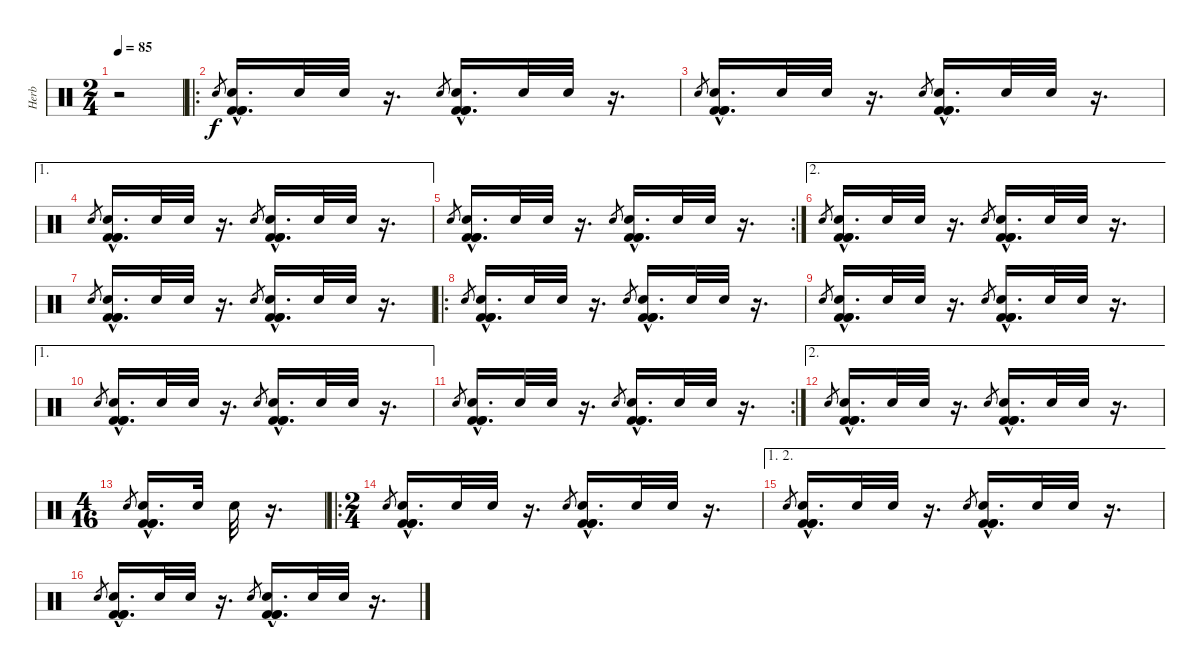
\track ("Herb" "Herb") {instrument percussion}
\staff {score}
\articulation defaults
\ts (2 4)
\tempo 85
\clef neutral
\ks c
r.2{dy f} |
\ro "Snare (hit) 2".8{gr}
("Snare (hit) 2"{hac} "Kick (hit) 2"{hac} "Kick (hit) 2"{hac} "Kick (hit) 2"{hac}).16{d} "Snare (hit) 2".32 "Snare (hit) 2".32 r.16{d} "Snare (hit) 2".8{gr} ("Snare (hit) 2"{hac} "Kick (hit) 2"{hac} "Kick (hit) 2"{hac} "Kick (hit) 2"{hac}).16{d} "Snare (hit) 2".32 "Snare (hit) 2".32 r.16{d} |
"Snare (hit) 2".8{gr} ("Snare (hit) 2"{hac} "Kick (hit) 2"{hac} "Kick (hit) 2"{hac} "Kick (hit) 2"{hac}).16{d} "Snare (hit) 2".32 "Snare (hit) 2".32 r.16{d} "Snare (hit) 2".8{gr} ("Snare (hit) 2"{hac} "Kick (hit) 2"{hac} "Kick (hit) 2"{hac} "Kick (hit) 2"{hac}).16{d} "Snare (hit) 2".32 "Snare (hit) 2".32 r.16{d} |
\ae 1 "Snare (hit) 2".8{gr}
("Snare (hit) 2"{hac} "Kick (hit) 2"{hac} "Kick (hit) 2"{hac} "Kick (hit) 2"{hac}).16{d} "Snare (hit) 2".32 "Snare (hit) 2".32 r.16{d} "Snare (hit) 2".8{gr} ("Snare (hit) 2"{hac} "Kick (hit) 2"{hac} "Kick (hit) 2"{hac} "Kick (hit) 2"{hac}).16{d} "Snare (hit) 2".32 "Snare (hit) 2".32 r.16{d} |
\rc 2 "Snare (hit) 2".8{gr}
("Snare (hit) 2"{hac} "Kick (hit) 2"{hac} "Kick (hit) 2"{hac} "Kick (hit) 2"{hac}).16{d} "Snare (hit) 2".32 "Snare (hit) 2".32 r.16{d} "Snare (hit) 2".8{gr} ("Snare (hit) 2"{hac} "Kick (hit) 2"{hac} "Kick (hit) 2"{hac} "Kick (hit) 2"{hac}).16{d} "Snare (hit) 2".32 "Snare (hit) 2".32 r.16{d} |
\ae 2 "Snare (hit) 2".8{gr}
("Snare (hit) 2"{hac} "Kick (hit) 2"{hac} "Kick (hit) 2"{hac} "Kick (hit) 2"{hac}).16{d} "Snare (hit) 2".32 "Snare (hit) 2".32 r.16{d} "Snare (hit) 2".8{gr} ("Snare (hit) 2"{hac} "Kick (hit) 2"{hac} "Kick (hit) 2"{hac} "Kick (hit) 2"{hac}).16{d} "Snare (hit) 2".32 "Snare (hit) 2".32 r.16{d} |
"Snare (hit) 2".8{gr} ("Snare (hit) 2"{hac} "Kick (hit) 2"{hac} "Kick (hit) 2"{hac} "Kick (hit) 2"{hac}).16{d} "Snare (hit) 2".32 "Snare (hit) 2".32 r.16{d} "Snare (hit) 2".8{gr} ("Snare (hit) 2"{hac} "Kick (hit) 2"{hac} "Kick (hit) 2"{hac} "Kick (hit) 2"{hac}).16{d} "Snare (hit) 2".32 "Snare (hit) 2".32 r.16{d} |
\ro "Snare (hit) 2".8{gr}
("Snare (hit) 2"{hac} "Kick (hit) 2"{hac} "Kick (hit) 2"{hac} "Kick (hit) 2"{hac}).16{d} "Snare (hit) 2".32 "Snare (hit) 2".32 r.16{d} "Snare (hit) 2".8{gr} ("Snare (hit) 2"{hac} "Kick (hit) 2"{hac} "Kick (hit) 2"{hac} "Kick (hit) 2"{hac}).16{d} "Snare (hit) 2".32 "Snare (hit) 2".32 r.16{d} |
"Snare (hit) 2".8{gr} ("Snare (hit) 2"{hac} "Kick (hit) 2"{hac} "Kick (hit) 2"{hac} "Kick (hit) 2"{hac}).16{d} "Snare (hit) 2".32 "Snare (hit) 2".32 r.16{d} "Snare (hit) 2".8{gr} ("Snare (hit) 2"{hac} "Kick (hit) 2"{hac} "Kick (hit) 2"{hac} "Kick (hit) 2"{hac}).16{d} "Snare (hit) 2".32 "Snare (hit) 2".32 r.16{d} |
\ae 1 "Snare (hit) 2".8{gr}
("Snare (hit) 2"{hac} "Kick (hit) 2"{hac} "Kick (hit) 2"{hac} "Kick (hit) 2"{hac}).16{d} "Snare (hit) 2".32 "Snare (hit) 2".32 r.16{d} "Snare (hit) 2".8{gr} ("Snare (hit) 2"{hac} "Kick (hit) 2"{hac} "Kick (hit) 2"{hac} "Kick (hit) 2"{hac}).16{d} "Snare (hit) 2".32 "Snare (hit) 2".32 r.16{d} |
\rc 2 "Snare (hit) 2".8{gr}
("Snare (hit) 2"{hac} "Kick (hit) 2"{hac} "Kick (hit) 2"{hac} "Kick (hit) 2"{hac}).16{d} "Snare (hit) 2".32 "Snare (hit) 2".32 r.16{d} "Snare (hit) 2".8{gr} ("Snare (hit) 2"{hac} "Kick (hit) 2"{hac} "Kick (hit) 2"{hac} "Kick (hit) 2"{hac}).16{d} "Snare (hit) 2".32 "Snare (hit) 2".32 r.16{d} |
\ae 2 "Snare (hit) 2".8{gr}
("Snare (hit) 2"{hac} "Kick (hit) 2"{hac} "Kick (hit) 2"{hac} "Kick (hit) 2"{hac}).16{d} "Snare (hit) 2".32 "Snare (hit) 2".32 r.16{d} "Snare (hit) 2".8{gr} ("Snare (hit) 2"{hac} "Kick (hit) 2"{hac} "Kick (hit) 2"{hac} "Kick (hit) 2"{hac}).16{d} "Snare (hit) 2".32 "Snare (hit) 2".32 r.16{d} |
\ts (4 16)
"Snare (hit) 2".8{gr} ("Snare (hit) 2"{hac} "Kick (hit) 2"{hac} "Kick (hit) 2"{hac} "Kick (hit) 2"{hac}).16{d} "Snare (hit) 2".32 "Snare (hit) 2".32 r.16{d} |
\ro
\ts (2 4)
"Snare (hit) 2".8{gr} ("Snare (hit) 2"{hac} "Kick (hit) 2"{hac} "Kick (hit) 2"{hac} "Kick (hit) 2"{hac}).16{d} "Snare (hit) 2".32 "Snare (hit) 2".32 r.16{d} "Snare (hit) 2".8{gr} ("Snare (hit) 2"{hac} "Kick (hit) 2"{hac} "Kick (hit) 2"{hac} "Kick (hit) 2"{hac}).16{d} "Snare (hit) 2".32 "Snare (hit) 2".32 r.16{d} |
\ae (1 2)
"Snare (hit) 2".8{gr} ("Snare (hit) 2"{hac} "Kick (hit) 2"{hac} "Kick (hit) 2"{hac} "Kick (hit) 2"{hac}).16{d} "Snare (hit) 2".32 "Snare (hit) 2".32 r.16{d} "Snare (hit) 2".8{gr} ("Snare (hit) 2"{hac} "Kick (hit) 2"{hac} "Kick (hit) 2"{hac} "Kick (hit) 2"{hac}).16{d} "Snare (hit) 2".32 "Snare (hit) 2".32 r.16{d} |
"Snare (hit) 2".8{gr} ("Snare (hit) 2"{hac} "Kick (hit) 2"{hac} "Kick (hit) 2"{hac} "Kick (hit) 2"{hac}).16{d} "Snare (hit) 2".32 "Snare (hit) 2".32 r.16{d} "Snare (hit) 2".8{gr} ("Snare (hit) 2"{hac} "Kick (hit) 2"{hac} "Kick (hit) 2"{hac} "Kick (hit) 2"{hac}).16{d} "Snare (hit) 2".32 "Snare (hit) 2".32 r.16{d}
